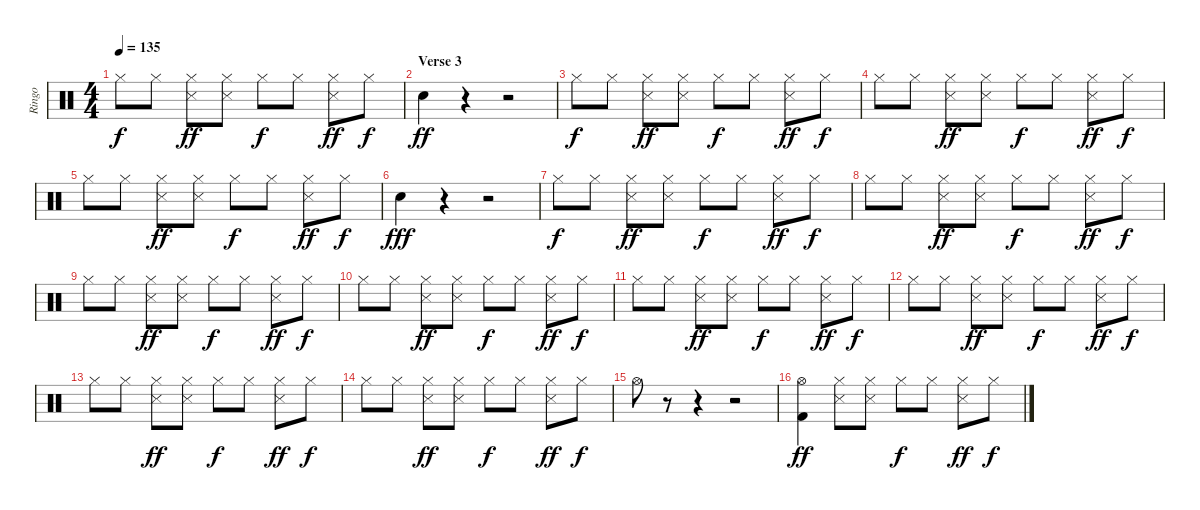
\track ("Ringo" "Ringo") {instrument percussion}
\staff {score}
\articulation defaults
\ts (4 4)
\tempo 135
\clef neutral
\ks c "Hi-Hat (closed)".8{dy f} "Hi-Hat (closed)".8
("Hi-Hat (closed)" "Snare (side stick) 3").8{dy ff} ("Hi-Hat (closed)" "Snare (side stick) 3").8 "Hi-Hat (closed)".8{dy f} "Hi-Hat (closed)".8 ("Hi-Hat (closed)" "Snare (side stick) 3").8{dy ff} "Hi-Hat (closed)".8{dy f} |
\section ("" "Verse 3")
"Electric Snare (hit)".4{dy ff} r.4 r.2 |
"Hi-Hat (closed)".8{dy f} "Hi-Hat (closed)".8 ("Hi-Hat (closed)" "Snare (side stick) 3").8{dy ff} ("Hi-Hat (closed)" "Snare (side stick) 3").8 "Hi-Hat (closed)".8{dy f} "Hi-Hat (closed)".8 ("Hi-Hat (closed)" "Snare (side stick) 3").8{dy ff} "Hi-Hat (closed)".8{dy f} |
"Hi-Hat (closed)".8 "Hi-Hat (closed)".8 ("Hi-Hat (closed)" "Snare (side stick) 3").8{dy ff} ("Hi-Hat (closed)" "Snare (side stick) 3").8 "Hi-Hat (closed)".8{dy f} "Hi-Hat (closed)".8 ("Hi-Hat (closed)" "Snare (side stick) 3").8{dy ff} "Hi-Hat (closed)".8{dy f} |
"Hi-Hat (closed)".8 "Hi-Hat (closed)".8 ("Hi-Hat (closed)" "Snare (side stick) 3").8{dy ff} ("Hi-Hat (closed)" "Snare (side stick) 3").8 "Hi-Hat (closed)".8{dy f} "Hi-Hat (closed)".8 ("Hi-Hat (closed)" "Snare (side stick) 3").8{dy ff} "Hi-Hat (closed)".8{dy f} |
"Electric Snare (hit)".4{dy fff} r.4 r.2 |
"Hi-Hat (closed)".8{dy f} "Hi-Hat (closed)".8 ("Hi-Hat (closed)" "Snare (side stick) 3").8{dy ff} ("Hi-Hat (closed)" "Snare (side stick) 3").8 "Hi-Hat (closed)".8{dy f} "Hi-Hat (closed)".8 ("Hi-Hat (closed)" "Snare (side stick) 3").8{dy ff} "Hi-Hat (closed)".8{dy f} |
"Hi-Hat (closed)".8 "Hi-Hat (closed)".8 ("Hi-Hat (closed)" "Snare (side stick) 3").8{dy ff} ("Hi-Hat (closed)" "Snare (side stick) 3").8 "Hi-Hat (closed)".8{dy f} "Hi-Hat (closed)".8 ("Hi-Hat (closed)" "Snare (side stick) 3").8{dy ff} "Hi-Hat (closed)".8{dy f} |
"Hi-Hat (closed)".8 "Hi-Hat (closed)".8 ("Hi-Hat (closed)" "Snare (side stick) 3").8{dy ff} ("Hi-Hat (closed)" "Snare (side stick) 3").8 "Hi-Hat (closed)".8{dy f} "Hi-Hat (closed)".8 ("Hi-Hat (closed)" "Snare (side stick) 3").8{dy ff} "Hi-Hat (closed)".8{dy f} |
"Hi-Hat (closed)".8 "Hi-Hat (closed)".8 ("Hi-Hat (closed)" "Snare (side stick) 3").8{dy ff} ("Hi-Hat (closed)" "Snare (side stick) 3").8 "Hi-Hat (closed)".8{dy f} "Hi-Hat (closed)".8 ("Hi-Hat (closed)" "Snare (side stick) 3").8{dy ff} "Hi-Hat (closed)".8{dy f} |
"Hi-Hat (closed)".8 "Hi-Hat (closed)".8 ("Hi-Hat (closed)" "Snare (side stick) 3").8{dy ff} ("Hi-Hat (closed)" "Snare (side stick) 3").8 "Hi-Hat (closed)".8{dy f} "Hi-Hat (closed)".8 ("Hi-Hat (closed)" "Snare (side stick) 3").8{dy ff} "Hi-Hat (closed)".8{dy f} |
"Hi-Hat (closed)".8 "Hi-Hat (closed)".8 ("Hi-Hat (closed)" "Snare (side stick) 3").8{dy ff} ("Hi-Hat (closed)" "Snare (side stick) 3").8 "Hi-Hat (closed)".8{dy f} "Hi-Hat (closed)".8 ("Hi-Hat (closed)" "Snare (side stick) 3").8{dy ff} "Hi-Hat (closed)".8{dy f} |
"Hi-Hat (closed)".8 "Hi-Hat (closed)".8 ("Hi-Hat (closed)" "Snare (side stick) 3").8{dy ff} ("Hi-Hat (closed)" "Snare (side stick) 3").8 "Hi-Hat (closed)".8{dy f} "Hi-Hat (closed)".8 ("Hi-Hat (closed)" "Snare (side stick) 3").8{dy ff} "Hi-Hat (closed)".8{dy f} |
"Hi-Hat (closed)".8 "Hi-Hat (closed)".8 ("Hi-Hat (closed)" "Snare (side stick) 3").8{dy ff} ("Hi-Hat (closed)" "Snare (side stick) 3").8 "Hi-Hat (closed)".8{dy f} "Hi-Hat (closed)".8 ("Hi-Hat (closed)" "Snare (side stick) 3").8{dy ff} "Hi-Hat (closed)".8{dy f} |
"Hi-Hat (open)".8 r.8 r.4 r.2 |
("Hi-Hat (open)" "Kick (hit) 2").4{dy ff} ("Hi-Hat (closed)" "Snare (side stick) 3").8 ("Hi-Hat (closed)" "Snare (side stick) 3").8 "Hi-Hat (closed)".8{dy f} "Hi-Hat (closed)".8 ("Hi-Hat (closed)" "Snare (side stick) 3").8{dy ff} "Hi-Hat (closed)".8{dy f}
